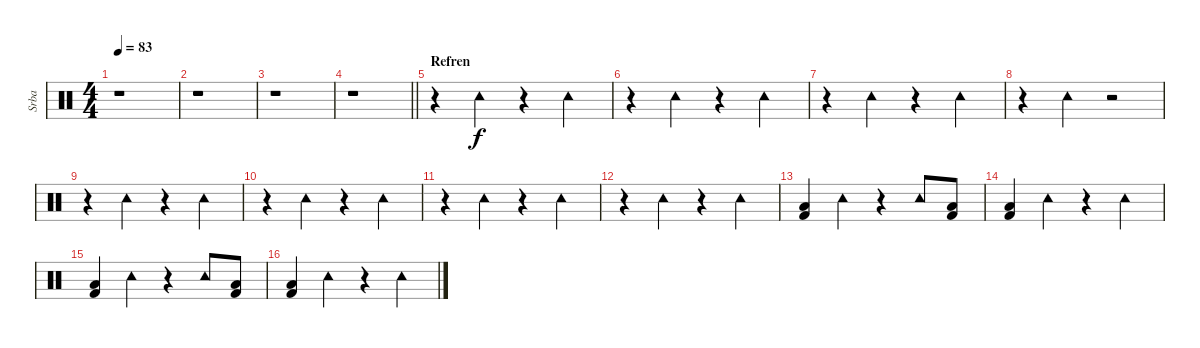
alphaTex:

\track ("Srba" "Srba") {instrument percussion}
\staff {score}
\articulation defaults
\ts (4 4)
\tempo 83
\clef neutral
\ks c
r.1{dy f} |
r.1 |
r.1 |
\barLineRight lightlight
r.1 |
\section ("" "Refren")
r.4 "Tambourine (hit)".4 r.4 "Tambourine (hit)".4 |
r.4 "Tambourine (hit)".4 r.4 "Tambourine (hit)".4 |
r.4 "Tambourine (hit)".4 r.4 "Tambourine (hit)".4 |
r.4 "Tambourine (hit)".4 r.2 |
r.4 "Tambourine (hit)".4 r.4 "Tambourine (hit)".4 |
r.4 "Tambourine (hit)".4 r.4 "Tambourine (hit)".4 |
r.4 "Tambourine (hit)".4 r.4 "Tambourine (hit)".4 |
r.4 "Tambourine (hit)".4 r.4 "Tambourine (hit)".4 |
("Kick (hit) 2" "Low Floor Tom (hit)").4 "Tambourine (hit)".4 r.4 "Tambourine (hit)".8 ("Kick (hit) 2" "Low Floor Tom (hit)").8 |
("Kick (hit) 2" "Low Floor Tom (hit)").4 "Tambourine (hit)".4 r.4 "Tambourine (hit)".4 |
("Kick (hit) 2" "Low Floor Tom (hit)").4 "Tambourine (hit)".4 r.4 "Tambourine (hit)".8 ("Kick (hit) 2" "Low Floor Tom (hit)").8 |
("Kick (hit) 2" "Low Floor Tom (hit)").4 "Tambourine (hit)".4 r.4 "Tambourine (hit)".4
